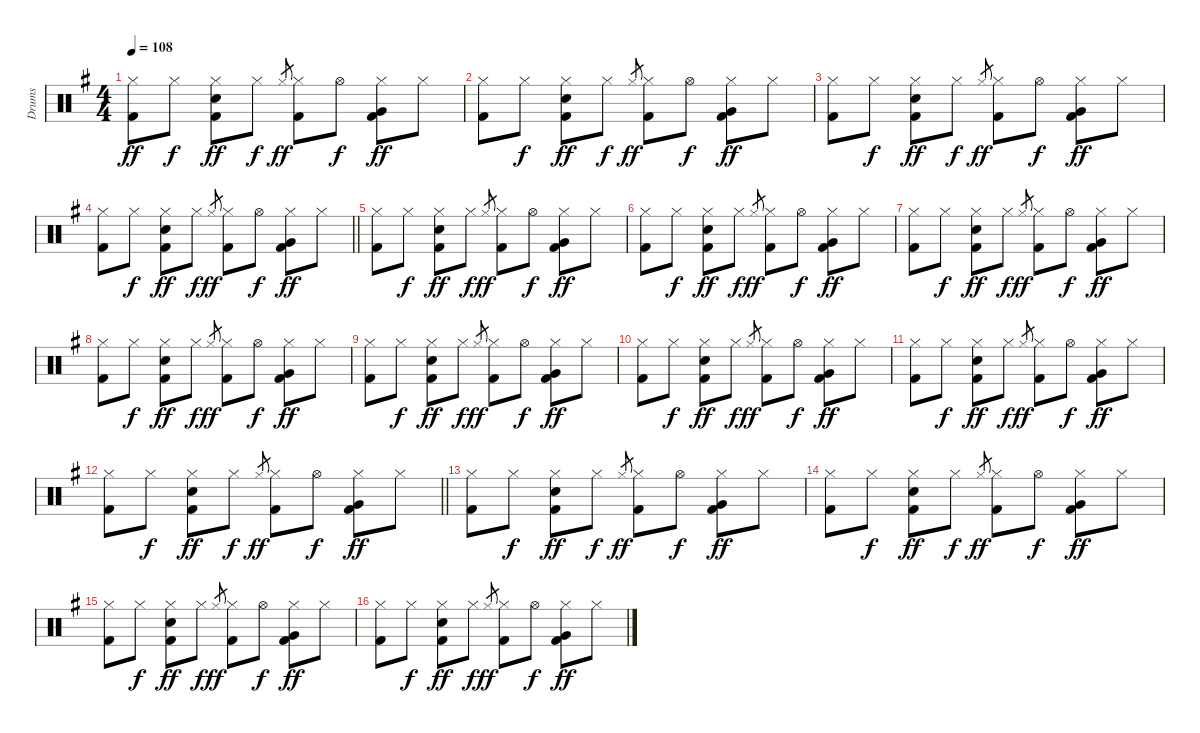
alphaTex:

\track ("Drums" "Drums") {instrument percussion}
\staff {score}
\articulation defaults
\ts (4 4)
\tempo 108
\clef neutral
\ks g
("Hi-Hat (closed)" "Kick (hit) 2").8{dy ff} "Hi-Hat (closed)".8{dy f} ("Hi-Hat (closed)" "Snare (hit) 2" "Kick (hit) 2").8{dy ff} "Hi-Hat (closed)".8{dy f} "Hi-Hat (closed)".8{gr dy ff} ("Hi-Hat (closed)" "Kick (hit) 2").8 "Hi-Hat (open)".8{dy f} ("Hi-Hat (closed)" "Very Low Tom (hit)" "Kick (hit) 2").8{dy ff} "Hi-Hat (closed)".8 |
("Hi-Hat (closed)" "Kick (hit) 2").8 "Hi-Hat (closed)".8{dy f} ("Hi-Hat (closed)" "Snare (hit) 2" "Kick (hit) 2").8{dy ff} "Hi-Hat (closed)".8{dy f} "Hi-Hat (closed)".8{gr dy ff} ("Hi-Hat (closed)" "Kick (hit) 2").8 "Hi-Hat (open)".8{dy f} ("Hi-Hat (closed)" "Very Low Tom (hit)" "Kick (hit) 2").8{dy ff} "Hi-Hat (closed)".8 |
("Hi-Hat (closed)" "Kick (hit) 2").8 "Hi-Hat (closed)".8{dy f} ("Hi-Hat (closed)" "Snare (hit) 2" "Kick (hit) 2").8{dy ff} "Hi-Hat (closed)".8{dy f} "Hi-Hat (closed)".8{gr dy ff} ("Hi-Hat (closed)" "Kick (hit) 2").8 "Hi-Hat (open)".8{dy f} ("Hi-Hat (closed)" "Very Low Tom (hit)" "Kick (hit) 2").8{dy ff} "Hi-Hat (closed)".8 |
\barLineRight lightlight
("Hi-Hat (closed)" "Kick (hit) 2").8 "Hi-Hat (closed)".8{dy f} ("Hi-Hat (closed)" "Snare (hit) 2" "Kick (hit) 2").8{dy ff} "Hi-Hat (closed)".8{dy f} "Hi-Hat (closed)".8{gr dy ff} ("Hi-Hat (closed)" "Kick (hit) 2").8 "Hi-Hat (open)".8{dy f} ("Hi-Hat (closed)" "Very Low Tom (hit)" "Kick (hit) 2").8{dy ff} "Hi-Hat (closed)".8 |
("Hi-Hat (closed)" "Kick (hit) 2").8 "Hi-Hat (closed)".8{dy f} ("Hi-Hat (closed)" "Snare (hit) 2" "Kick (hit) 2").8{dy ff} "Hi-Hat (closed)".8{dy f} "Hi-Hat (closed)".8{gr dy ff} ("Hi-Hat (closed)" "Kick (hit) 2").8 "Hi-Hat (open)".8{dy f} ("Hi-Hat (closed)" "Very Low Tom (hit)" "Kick (hit) 2").8{dy ff} "Hi-Hat (closed)".8 |
("Hi-Hat (closed)" "Kick (hit) 2").8 "Hi-Hat (closed)".8{dy f} ("Hi-Hat (closed)" "Snare (hit) 2" "Kick (hit) 2").8{dy ff} "Hi-Hat (closed)".8{dy f} "Hi-Hat (closed)".8{gr dy ff} ("Hi-Hat (closed)" "Kick (hit) 2").8 "Hi-Hat (open)".8{dy f} ("Hi-Hat (closed)" "Very Low Tom (hit)" "Kick (hit) 2").8{dy ff} "Hi-Hat (closed)".8 |
("Hi-Hat (closed)" "Kick (hit) 2").8 "Hi-Hat (closed)".8{dy f} ("Hi-Hat (closed)" "Snare (hit) 2" "Kick (hit) 2").8{dy ff} "Hi-Hat (closed)".8{dy f} "Hi-Hat (closed)".8{gr dy ff} ("Hi-Hat (closed)" "Kick (hit) 2").8 "Hi-Hat (open)".8{dy f} ("Hi-Hat (closed)" "Very Low Tom (hit)" "Kick (hit) 2").8{dy ff} "Hi-Hat (closed)".8 |
("Hi-Hat (closed)" "Kick (hit) 2").8 "Hi-Hat (closed)".8{dy f} ("Hi-Hat (closed)" "Snare (hit) 2" "Kick (hit) 2").8{dy ff} "Hi-Hat (closed)".8{dy f} "Hi-Hat (closed)".8{gr dy ff} ("Hi-Hat (closed)" "Kick (hit) 2").8 "Hi-Hat (open)".8{dy f} ("Hi-Hat (closed)" "Very Low Tom (hit)" "Kick (hit) 2").8{dy ff} "Hi-Hat (closed)".8 |
("Hi-Hat (closed)" "Kick (hit) 2").8 "Hi-Hat (closed)".8{dy f} ("Hi-Hat (closed)" "Snare (hit) 2" "Kick (hit) 2").8{dy ff} "Hi-Hat (closed)".8{dy f} "Hi-Hat (closed)".8{gr dy ff} ("Hi-Hat (closed)" "Kick (hit) 2").8 "Hi-Hat (open)".8{dy f} ("Hi-Hat (closed)" "Very Low Tom (hit)" "Kick (hit) 2").8{dy ff} "Hi-Hat (closed)".8 |
("Hi-Hat (closed)" "Kick (hit) 2").8 "Hi-Hat (closed)".8{dy f} ("Hi-Hat (closed)" "Snare (hit) 2" "Kick (hit) 2").8{dy ff} "Hi-Hat (closed)".8{dy f} "Hi-Hat (closed)".8{gr dy ff} ("Hi-Hat (closed)" "Kick (hit) 2").8 "Hi-Hat (open)".8{dy f} ("Hi-Hat (closed)" "Very Low Tom (hit)" "Kick (hit) 2").8{dy ff} "Hi-Hat (closed)".8 |
("Hi-Hat (closed)" "Kick (hit) 2").8 "Hi-Hat (closed)".8{dy f} ("Hi-Hat (closed)" "Snare (hit) 2" "Kick (hit) 2").8{dy ff} "Hi-Hat (closed)".8{dy f} "Hi-Hat (closed)".8{gr dy ff} ("Hi-Hat (closed)" "Kick (hit) 2").8 "Hi-Hat (open)".8{dy f} ("Hi-Hat (closed)" "Very Low Tom (hit)" "Kick (hit) 2").8{dy ff} "Hi-Hat (closed)".8 |
\barLineRight lightlight
("Hi-Hat (closed)" "Kick (hit) 2").8 "Hi-Hat (closed)".8{dy f} ("Hi-Hat (closed)" "Snare (hit) 2" "Kick (hit) 2").8{dy ff} "Hi-Hat (closed)".8{dy f} "Hi-Hat (closed)".8{gr dy ff} ("Hi-Hat (closed)" "Kick (hit) 2").8 "Hi-Hat (open)".8{dy f} ("Hi-Hat (closed)" "Very Low Tom (hit)" "Kick (hit) 2").8{dy ff} "Hi-Hat (closed)".8 |
("Hi-Hat (closed)" "Kick (hit) 2").8 "Hi-Hat (closed)".8{dy f} ("Hi-Hat (closed)" "Snare (hit) 2" "Kick (hit) 2").8{dy ff} "Hi-Hat (closed)".8{dy f} "Hi-Hat (closed)".8{gr dy ff} ("Hi-Hat (closed)" "Kick (hit) 2").8 "Hi-Hat (open)".8{dy f} ("Hi-Hat (closed)" "Very Low Tom (hit)" "Kick (hit) 2").8{dy ff} "Hi-Hat (closed)".8 |
("Hi-Hat (closed)" "Kick (hit) 2").8 "Hi-Hat (closed)".8{dy f} ("Hi-Hat (closed)" "Snare (hit) 2" "Kick (hit) 2").8{dy ff} "Hi-Hat (closed)".8{dy f} "Hi-Hat (closed)".8{gr dy ff} ("Hi-Hat (closed)" "Kick (hit) 2").8 "Hi-Hat (open)".8{dy f} ("Hi-Hat (closed)" "Very Low Tom (hit)" "Kick (hit) 2").8{dy ff} "Hi-Hat (closed)".8 |
("Hi-Hat (closed)" "Kick (hit) 2").8 "Hi-Hat (closed)".8{dy f} ("Hi-Hat (closed)" "Snare (hit) 2" "Kick (hit) 2").8{dy ff} "Hi-Hat (closed)".8{dy f} "Hi-Hat (closed)".8{gr dy ff} ("Hi-Hat (closed)" "Kick (hit) 2").8 "Hi-Hat (open)".8{dy f} ("Hi-Hat (closed)" "Very Low Tom (hit)" "Kick (hit) 2").8{dy ff} "Hi-Hat (closed)".8 |
("Hi-Hat (closed)" "Kick (hit) 2").8 "Hi-Hat (closed)".8{dy f} ("Hi-Hat (closed)" "Snare (hit) 2" "Kick (hit) 2").8{dy ff} "Hi-Hat (closed)".8{dy f} "Hi-Hat (closed)".8{gr dy ff} ("Hi-Hat (closed)" "Kick (hit) 2").8 "Hi-Hat (open)".8{dy f} ("Hi-Hat (closed)" "Very Low Tom (hit)" "Kick (hit) 2").8{dy ff} "Hi-Hat (closed)".8
